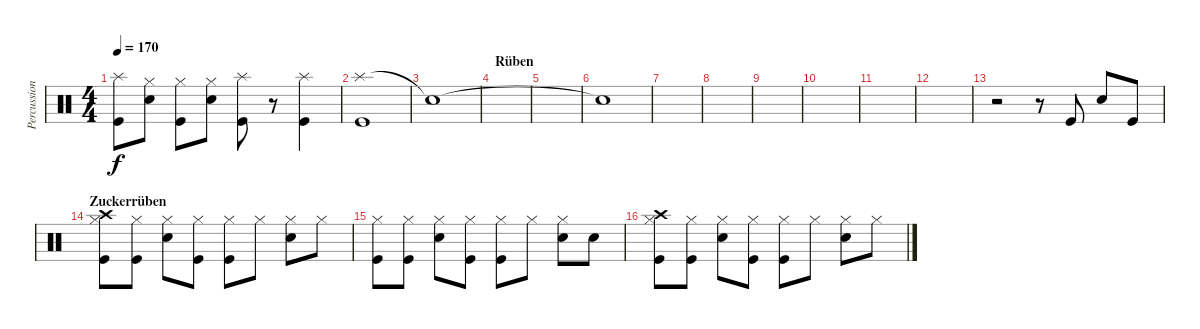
\track ("Percussion" "Percussion") {instrument percussion}
\staff {score}
\articulation defaults
\ts (4 4)
\tempo 170
\clef neutral
\ks c
("Splash (hit)" "Kick (hit)").8{dy f} ("Hi-Hat (closed)" "Electric Snare (hit)").8 ("Hi-Hat (closed)" "Kick (hit)").8 ("Hi-Hat (closed)" "Electric Snare (hit)").8 ("Splash (hit)" "Kick (hit)").8 r.8 ("Splash (hit)" "Kick (hit)").4 |
("Splash (hit)" "Kick (hit)").1 |
"Snare (hit)"{t}.1 |
\section ("" "Rüben")
|
|
"Snare (hit)"{t}.1 |
|
|
|
|
|
|
r.2 r.8 "Kick (hit)".8 "Electric Snare (hit)".8 "Kick (hit)".8 |
\section ("" "Zuckerrüben")
("Crash high (hit)" "Hi-Hat (closed)" "Kick (hit)").8 ("Hi-Hat (closed)" "Kick (hit)").8 ("Hi-Hat (closed)" "Electric Snare (hit)").8 ("Hi-Hat (closed)" "Kick (hit)").8 ("Hi-Hat (closed)" "Kick (hit)").8 "Hi-Hat (closed)".8 ("Hi-Hat (closed)" "Electric Snare (hit)").8 "Hi-Hat (closed)".8 |
("Hi-Hat (closed)" "Kick (hit)").8 ("Hi-Hat (closed)" "Kick (hit)").8 ("Hi-Hat (closed)" "Electric Snare (hit)").8 ("Hi-Hat (closed)" "Kick (hit)").8 ("Hi-Hat (closed)" "Kick (hit)").8 "Hi-Hat (closed)".8 ("Hi-Hat (closed)" "Electric Snare (hit)").8 "Electric Snare (hit)".8 |
("Crash high (hit)" "Hi-Hat (closed)" "Kick (hit)").8 ("Hi-Hat (closed)" "Kick (hit)").8 ("Hi-Hat (closed)" "Electric Snare (hit)").8 ("Hi-Hat (closed)" "Kick (hit)").8 ("Hi-Hat (closed)" "Kick (hit)").8 "Hi-Hat (closed)".8 ("Hi-Hat (closed)" "Electric Snare (hit)").8 "Hi-Hat (closed)".8
